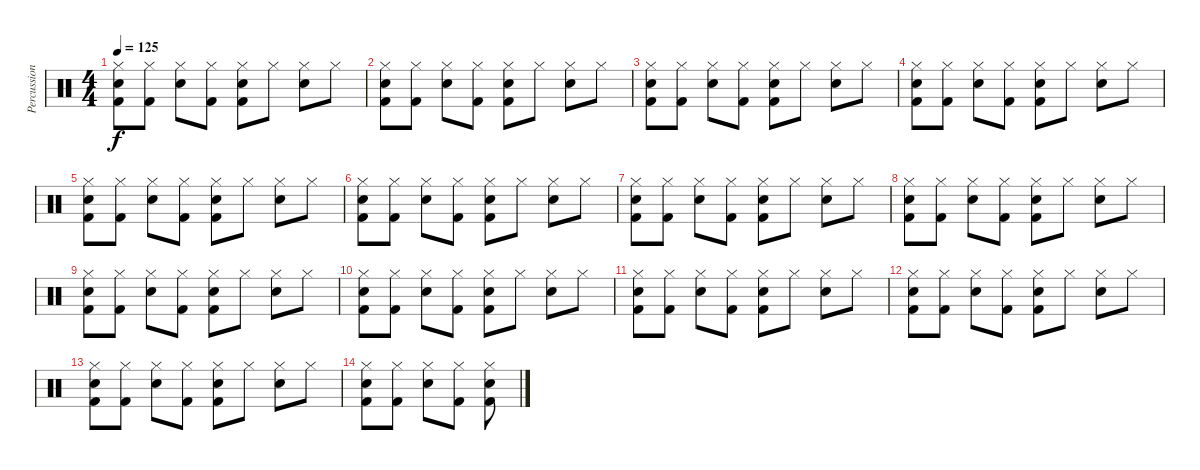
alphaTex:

\track ("Percussion" "Percussion") {instrument percussion}
\staff {score}
\articulation defaults
\ts (4 4)
\tempo 125
\clef neutral
\ks c
("Hi-Hat (closed)" "Electric Snare (hit)" "Kick (hit) 2").8{dy f} ("Hi-Hat (closed)" "Kick (hit) 2").8 ("Hi-Hat (closed)" "Electric Snare (hit)").8 ("Hi-Hat (closed)" "Kick (hit) 2").8 ("Hi-Hat (closed)" "Electric Snare (hit)" "Kick (hit) 2").8 "Hi-Hat (closed)".8 ("Hi-Hat (closed)" "Electric Snare (hit)").8 "Hi-Hat (closed)".8 |
("Hi-Hat (closed)" "Electric Snare (hit)" "Kick (hit) 2").8 ("Hi-Hat (closed)" "Kick (hit) 2").8 ("Hi-Hat (closed)" "Electric Snare (hit)").8 ("Hi-Hat (closed)" "Kick (hit) 2").8 ("Hi-Hat (closed)" "Electric Snare (hit)" "Kick (hit) 2").8 "Hi-Hat (closed)".8 ("Hi-Hat (closed)" "Electric Snare (hit)").8 "Hi-Hat (closed)".8 |
("Hi-Hat (closed)" "Electric Snare (hit)" "Kick (hit) 2").8 ("Hi-Hat (closed)" "Kick (hit) 2").8 ("Hi-Hat (closed)" "Electric Snare (hit)").8 ("Hi-Hat (closed)" "Kick (hit) 2").8 ("Hi-Hat (closed)" "Electric Snare (hit)" "Kick (hit) 2").8 "Hi-Hat (closed)".8 ("Hi-Hat (closed)" "Electric Snare (hit)").8 "Hi-Hat (closed)".8 |
("Hi-Hat (closed)" "Electric Snare (hit)" "Kick (hit) 2").8 ("Hi-Hat (closed)" "Kick (hit) 2").8 ("Hi-Hat (closed)" "Electric Snare (hit)").8 ("Hi-Hat (closed)" "Kick (hit) 2").8 ("Hi-Hat (closed)" "Electric Snare (hit)" "Kick (hit) 2").8 "Hi-Hat (closed)".8 ("Hi-Hat (closed)" "Electric Snare (hit)").8 "Hi-Hat (closed)".8 |
("Hi-Hat (closed)" "Electric Snare (hit)" "Kick (hit) 2").8 ("Hi-Hat (closed)" "Kick (hit) 2").8 ("Hi-Hat (closed)" "Electric Snare (hit)").8 ("Hi-Hat (closed)" "Kick (hit) 2").8 ("Hi-Hat (closed)" "Electric Snare (hit)" "Kick (hit) 2").8 "Hi-Hat (closed)".8 ("Hi-Hat (closed)" "Electric Snare (hit)").8 "Hi-Hat (closed)".8 |
("Hi-Hat (closed)" "Electric Snare (hit)" "Kick (hit) 2").8 ("Hi-Hat (closed)" "Kick (hit) 2").8 ("Hi-Hat (closed)" "Electric Snare (hit)").8 ("Hi-Hat (closed)" "Kick (hit) 2").8 ("Hi-Hat (closed)" "Electric Snare (hit)" "Kick (hit) 2").8 "Hi-Hat (closed)".8 ("Hi-Hat (closed)" "Electric Snare (hit)").8 "Hi-Hat (closed)".8 |
("Hi-Hat (closed)" "Electric Snare (hit)" "Kick (hit) 2").8 ("Hi-Hat (closed)" "Kick (hit) 2").8 ("Hi-Hat (closed)" "Electric Snare (hit)").8 ("Hi-Hat (closed)" "Kick (hit) 2").8 ("Hi-Hat (closed)" "Electric Snare (hit)" "Kick (hit) 2").8 "Hi-Hat (closed)".8 ("Hi-Hat (closed)" "Electric Snare (hit)").8 "Hi-Hat (closed)".8 |
("Hi-Hat (closed)" "Electric Snare (hit)" "Kick (hit) 2").8 ("Hi-Hat (closed)" "Kick (hit) 2").8 ("Hi-Hat (closed)" "Electric Snare (hit)").8 ("Hi-Hat (closed)" "Kick (hit) 2").8 ("Hi-Hat (closed)" "Electric Snare (hit)" "Kick (hit) 2").8 "Hi-Hat (closed)".8 ("Hi-Hat (closed)" "Electric Snare (hit)").8 "Hi-Hat (closed)".8 |
("Hi-Hat (closed)" "Electric Snare (hit)" "Kick (hit) 2").8 ("Hi-Hat (closed)" "Kick (hit) 2").8 ("Hi-Hat (closed)" "Electric Snare (hit)").8 ("Hi-Hat (closed)" "Kick (hit) 2").8 ("Hi-Hat (closed)" "Electric Snare (hit)" "Kick (hit) 2").8 "Hi-Hat (closed)".8 ("Hi-Hat (closed)" "Electric Snare (hit)").8 "Hi-Hat (closed)".8 |
("Hi-Hat (closed)" "Electric Snare (hit)" "Kick (hit) 2").8 ("Hi-Hat (closed)" "Kick (hit) 2").8 ("Hi-Hat (closed)" "Electric Snare (hit)").8 ("Hi-Hat (closed)" "Kick (hit) 2").8 ("Hi-Hat (closed)" "Electric Snare (hit)" "Kick (hit) 2").8 "Hi-Hat (closed)".8 ("Hi-Hat (closed)" "Electric Snare (hit)").8 "Hi-Hat (closed)".8 |
("Hi-Hat (closed)" "Electric Snare (hit)" "Kick (hit) 2").8 ("Hi-Hat (closed)" "Kick (hit) 2").8 ("Hi-Hat (closed)" "Electric Snare (hit)").8 ("Hi-Hat (closed)" "Kick (hit) 2").8 ("Hi-Hat (closed)" "Electric Snare (hit)" "Kick (hit) 2").8 "Hi-Hat (closed)".8 ("Hi-Hat (closed)" "Electric Snare (hit)").8 "Hi-Hat (closed)".8 |
("Hi-Hat (closed)" "Electric Snare (hit)" "Kick (hit) 2").8 ("Hi-Hat (closed)" "Kick (hit) 2").8 ("Hi-Hat (closed)" "Electric Snare (hit)").8 ("Hi-Hat (closed)" "Kick (hit) 2").8 ("Hi-Hat (closed)" "Electric Snare (hit)" "Kick (hit) 2").8 "Hi-Hat (closed)".8 ("Hi-Hat (closed)" "Electric Snare (hit)").8 "Hi-Hat (closed)".8 |
("Hi-Hat (closed)" "Electric Snare (hit)" "Kick (hit) 2").8 ("Hi-Hat (closed)" "Kick (hit) 2").8 ("Hi-Hat (closed)" "Electric Snare (hit)").8 ("Hi-Hat (closed)" "Kick (hit) 2").8 ("Hi-Hat (closed)" "Electric Snare (hit)" "Kick (hit) 2").8 "Hi-Hat (closed)".8 ("Hi-Hat (closed)" "Electric Snare (hit)").8 "Hi-Hat (closed)".8 |
("Hi-Hat (closed)" "Electric Snare (hit)" "Kick (hit) 2").8 ("Hi-Hat (closed)" "Kick (hit) 2").8 ("Hi-Hat (closed)" "Electric Snare (hit)").8 ("Hi-Hat (closed)" "Kick (hit) 2").8 ("Hi-Hat (closed)" "Electric Snare (hit)" "Kick (hit) 2").8
